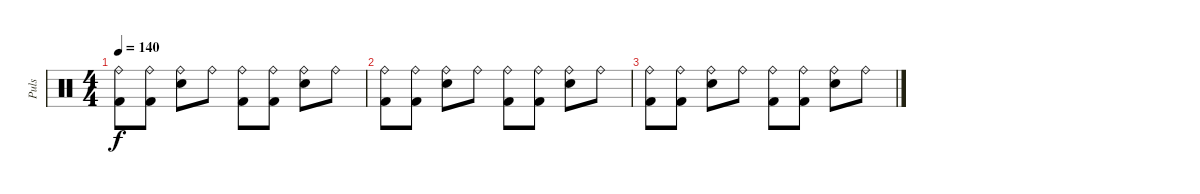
\track ("Puls" "Puls") {instrument percussion}
\staff {score}
\articulation defaults
\ts (4 4)
\tempo 140
\clef neutral
\ks c
("Ride (bell)" "Kick (hit) 2").8{dy f} ("Ride (bell)" "Kick (hit) 2").8 ("Ride (bell)" "Snare (hit) 2").8 "Ride (bell)".8 ("Ride (bell)" "Kick (hit) 2").8 ("Ride (bell)" "Kick (hit) 2").8 ("Ride (bell)" "Snare (hit) 2").8 "Ride (bell)".8 |
("Ride (bell)" "Kick (hit) 2").8 ("Ride (bell)" "Kick (hit) 2").8 ("Ride (bell)" "Snare (hit) 2").8 "Ride (bell)".8 ("Ride (bell)" "Kick (hit) 2").8 ("Ride (bell)" "Kick (hit) 2").8 ("Ride (bell)" "Snare (hit) 2").8 "Ride (bell)".8 |
("Ride (bell)" "Kick (hit) 2").8 ("Ride (bell)" "Kick (hit) 2").8 ("Ride (bell)" "Snare (hit) 2").8 "Ride (bell)".8 ("Ride (bell)" "Kick (hit) 2").8 ("Ride (bell)" "Kick (hit) 2").8 ("Ride (bell)" "Snare (hit) 2").8 "Ride (bell)".8
